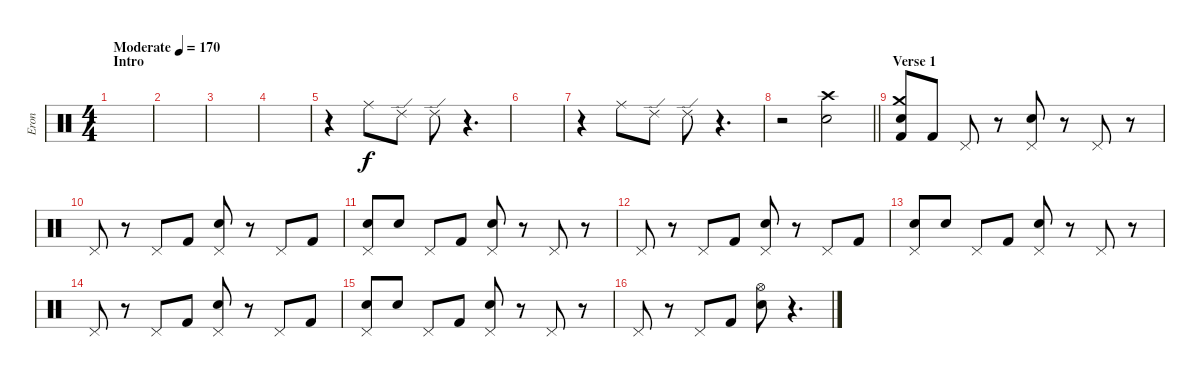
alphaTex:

\track ("Eron" "Eron") {instrument percussion}
\staff {score}
\articulation defaults
\ts (4 4)
\section ("" "Intro")
\tempo (170 "Moderate")
\clef neutral
\ks c
|
|
|
|
r.4 "Ride (middle)".8 "Ride (edge) 2".8 "Ride (edge) 2".8 r.4{d} |
|
r.4 "Ride (middle)".8 "Ride (edge) 2".8 "Ride (edge) 2".8 r.4{d} |
\barLineRight lightlight
r.2 ("Crash high (hit)" "Snare (hit) 2").2{dy f} |
\section ("" "Verse 1")
("Crash medium (hit)" "Snare (hit) 2" "Kick (hit) 2").8 "Kick (hit) 2".8 "Pedal Hi-Hat (hit)".8 r.8 ("Pedal Hi-Hat (hit)" "Snare (hit) 2").8 r.8 "Pedal Hi-Hat (hit)".8 r.8 |
"Pedal Hi-Hat (hit)".8 r.8 "Pedal Hi-Hat (hit)".8 "Kick (hit) 2".8 ("Pedal Hi-Hat (hit)" "Snare (hit) 2").8 r.8 "Pedal Hi-Hat (hit)".8 "Kick (hit) 2".8 |
("Pedal Hi-Hat (hit)" "Snare (hit) 2").8 "Snare (hit) 2".8 "Pedal Hi-Hat (hit)".8 "Kick (hit) 2".8 ("Pedal Hi-Hat (hit)" "Snare (hit) 2").8 r.8 "Pedal Hi-Hat (hit)".8 r.8 |
"Pedal Hi-Hat (hit)".8 r.8 "Pedal Hi-Hat (hit)".8 "Kick (hit) 2".8 ("Pedal Hi-Hat (hit)" "Snare (hit) 2").8 r.8 "Pedal Hi-Hat (hit)".8 "Kick (hit) 2".8 |
("Pedal Hi-Hat (hit)" "Snare (hit) 2").8 "Snare (hit) 2".8 "Pedal Hi-Hat (hit)".8 "Kick (hit) 2".8 ("Pedal Hi-Hat (hit)" "Snare (hit) 2").8 r.8 "Pedal Hi-Hat (hit)".8 r.8 |
"Pedal Hi-Hat (hit)".8 r.8 "Pedal Hi-Hat (hit)".8 "Kick (hit) 2".8 ("Pedal Hi-Hat (hit)" "Snare (hit) 2").8 r.8 "Pedal Hi-Hat (hit)".8 "Kick (hit) 2".8 |
("Pedal Hi-Hat (hit)" "Snare (hit) 2").8 "Snare (hit) 2".8 "Pedal Hi-Hat (hit)".8 "Kick (hit) 2".8 ("Pedal Hi-Hat (hit)" "Snare (hit) 2").8 r.8 "Pedal Hi-Hat (hit)".8 r.8 |
"Pedal Hi-Hat (hit)".8 r.8 "Pedal Hi-Hat (hit)".8 "Kick (hit) 2".8 ("Hi-Hat (open)" "Snare (hit) 2").8 r.4{d}
